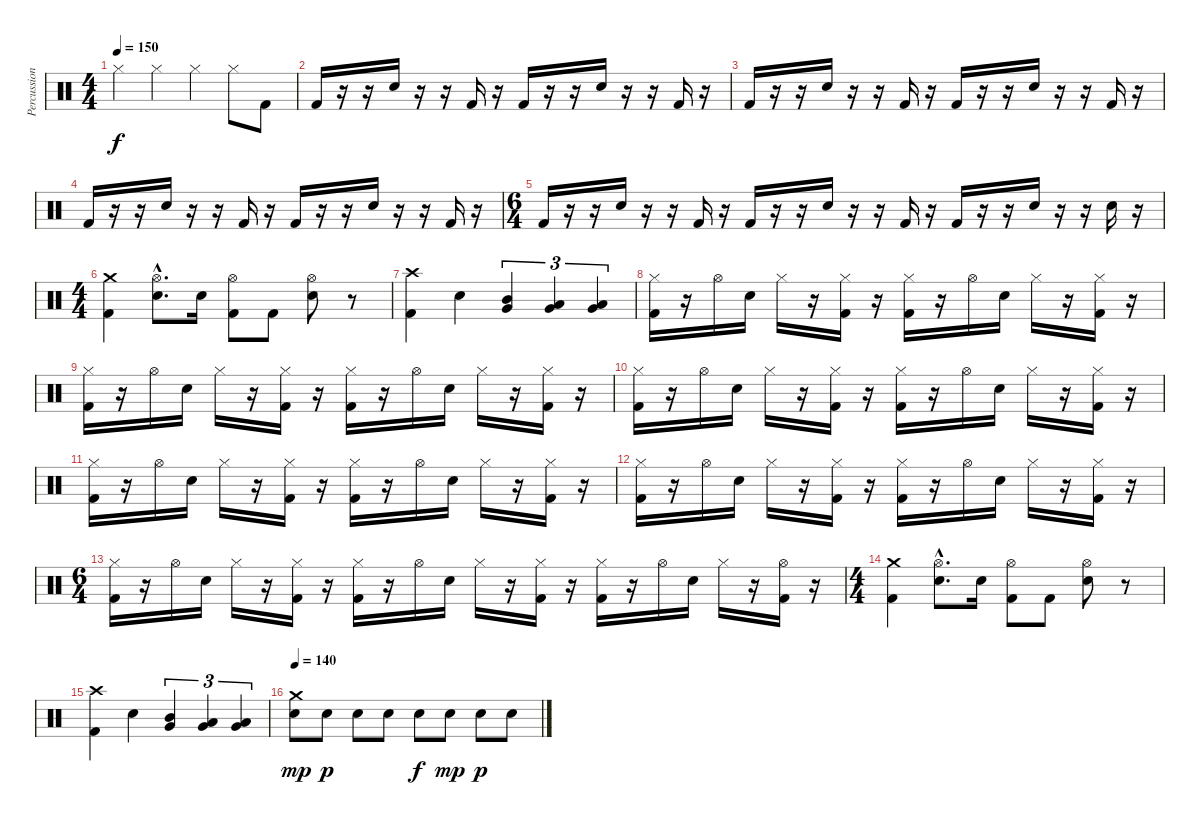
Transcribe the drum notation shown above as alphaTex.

\track ("Percussion" "Percussion") {instrument percussion}
\staff {score}
\articulation defaults
\ts (4 4)
\tempo 150
\clef neutral
\ks c "Hi-Hat (closed)".4{dy f} "Hi-Hat (closed)".4 "Hi-Hat (closed)".4 "Hi-Hat (closed)".8 "Kick (hit) 2".8
|
"Kick (hit) 2".16 r.16 r.16 "Snare (hit) 2".16 r.16 r.16 "Kick (hit) 2".16 r.16 "Kick (hit) 2".16 r.16 r.16 "Snare (hit) 2".16 r.16 r.16 "Kick (hit) 2".16 r.16 |
"Kick (hit) 2".16 r.16 r.16 "Snare (hit) 2".16 r.16 r.16 "Kick (hit) 2".16 r.16 "Kick (hit) 2".16 r.16 r.16 "Snare (hit) 2".16 r.16 r.16 "Kick (hit) 2".16 r.16 |
"Kick (hit) 2".16 r.16 r.16 "Snare (hit) 2".16 r.16 r.16 "Kick (hit) 2".16 r.16 "Kick (hit) 2".16 r.16 r.16 "Snare (hit) 2".16 r.16 r.16 "Kick (hit) 2".16 r.16 |
\ts (6 4)
"Kick (hit) 2".16 r.16 r.16 "Snare (hit) 2".16 r.16 r.16 "Kick (hit) 2".16 r.16 "Kick (hit) 2".16 r.16 r.16 "Snare (hit) 2".16 r.16 r.16 "Kick (hit) 2".16 r.16 "Kick (hit) 2".16 r.16 r.16 "Snare (hit) 2".16 r.16 r.16 "Snare (hit) 2".16 r.16 |
\ts (4 4)
("Crash medium (hit)" "Kick (hit) 2").4 ("Hi-Hat (open)"{hac} "Snare (hit) 2"{hac}).8{d} "Snare (hit) 2".16 ("Hi-Hat (open)" "Kick (hit) 2").8 "Kick (hit) 2".8 ("Hi-Hat (open)" "Snare (hit) 2").8 r.8 |
("Crash high (hit)" "Kick (hit) 2").4 "Snare (hit) 2".4 ("Mid Tom (hit)" "Very Low Tom (hit)").4{tu (3 2)} ("Low Tom (hit)" "Very Low Tom (hit)").4{tu (3 2)} ("Low Tom (hit)" "Very Low Tom (hit)").4{tu (3 2)} |
("Hi-Hat (closed)" "Kick (hit) 2").16 r.16 "Hi-Hat (open)".16 "Snare (hit) 2".16 "Hi-Hat (closed)".16 r.16 ("Hi-Hat (closed)" "Kick (hit) 2").16 r.16 ("Hi-Hat (closed)" "Kick (hit) 2").16 r.16 "Hi-Hat (open)".16 "Snare (hit) 2".16 "Hi-Hat (closed)".16 r.16 ("Hi-Hat (closed)" "Kick (hit) 2").16 r.16 |
("Hi-Hat (closed)" "Kick (hit) 2").16 r.16 "Hi-Hat (open)".16 "Snare (hit) 2".16 "Hi-Hat (closed)".16 r.16 ("Hi-Hat (closed)" "Kick (hit) 2").16 r.16 ("Hi-Hat (closed)" "Kick (hit) 2").16 r.16 "Hi-Hat (open)".16 "Snare (hit) 2".16 "Hi-Hat (closed)".16 r.16 ("Hi-Hat (closed)" "Kick (hit) 2").16 r.16 |
("Hi-Hat (closed)" "Kick (hit) 2").16 r.16 "Hi-Hat (open)".16 "Snare (hit) 2".16 "Hi-Hat (closed)".16 r.16 ("Hi-Hat (closed)" "Kick (hit) 2").16 r.16 ("Hi-Hat (closed)" "Kick (hit) 2").16 r.16 "Hi-Hat (open)".16 "Snare (hit) 2".16 "Hi-Hat (closed)".16 r.16 ("Hi-Hat (closed)" "Kick (hit) 2").16 r.16 |
("Hi-Hat (closed)" "Kick (hit) 2").16 r.16 "Hi-Hat (open)".16 "Snare (hit) 2".16 "Hi-Hat (closed)".16 r.16 ("Hi-Hat (closed)" "Kick (hit) 2").16 r.16 ("Hi-Hat (closed)" "Kick (hit) 2").16 r.16 "Hi-Hat (open)".16 "Snare (hit) 2".16 "Hi-Hat (closed)".16 r.16 ("Hi-Hat (closed)" "Kick (hit) 2").16 r.16 |
("Hi-Hat (closed)" "Kick (hit) 2").16 r.16 "Hi-Hat (open)".16 "Snare (hit) 2".16 "Hi-Hat (closed)".16 r.16 ("Hi-Hat (closed)" "Kick (hit) 2").16 r.16 ("Hi-Hat (closed)" "Kick (hit) 2").16 r.16 "Hi-Hat (open)".16 "Snare (hit) 2".16 "Hi-Hat (closed)".16 r.16 ("Hi-Hat (closed)" "Kick (hit) 2").16 r.16 |
\ts (6 4)
("Hi-Hat (closed)" "Kick (hit) 2").16 r.16 "Hi-Hat (open)".16 "Snare (hit) 2".16 "Hi-Hat (closed)".16 r.16 ("Hi-Hat (closed)" "Kick (hit) 2").16 r.16 ("Hi-Hat (closed)" "Kick (hit) 2").16 r.16 "Hi-Hat (open)".16 "Snare (hit) 2".16 "Hi-Hat (closed)".16 r.16 ("Hi-Hat (closed)" "Kick (hit) 2").16 r.16 ("Hi-Hat (closed)" "Kick (hit) 2").16 r.16 "Hi-Hat (open)".16 "Snare (hit) 2".16 "Hi-Hat (closed)".16 r.16 ("Hi-Hat (open)" "Kick (hit) 2").16 r.16 |
\ts (4 4)
("Crash medium (hit)" "Kick (hit) 2").4 ("Hi-Hat (open)"{hac} "Snare (hit) 2"{hac}).8{d} "Snare (hit) 2".16 ("Hi-Hat (open)" "Kick (hit) 2").8 "Kick (hit) 2".8 ("Hi-Hat (open)" "Snare (hit) 2").8 r.8 |
("Crash high (hit)" "Kick (hit) 2").4 "Snare (hit) 2".4 ("Mid Tom (hit)" "Very Low Tom (hit)").4{tu (3 2)} ("Low Tom (hit)" "Very Low Tom (hit)").4{tu (3 2)} ("Low Tom (hit)" "Very Low Tom (hit)").4{tu (3 2)} |
\tempo 140
("Crash medium (hit)" "Snare (hit) 2").8{dy mp} "Snare (hit) 2".8{dy p} "Snare (hit) 2".8 "Snare (hit) 2".8 "Snare (hit) 2".8{dy f} "Snare (hit) 2".8{dy mp} "Snare (hit) 2".8{dy p} "Snare (hit) 2".8
